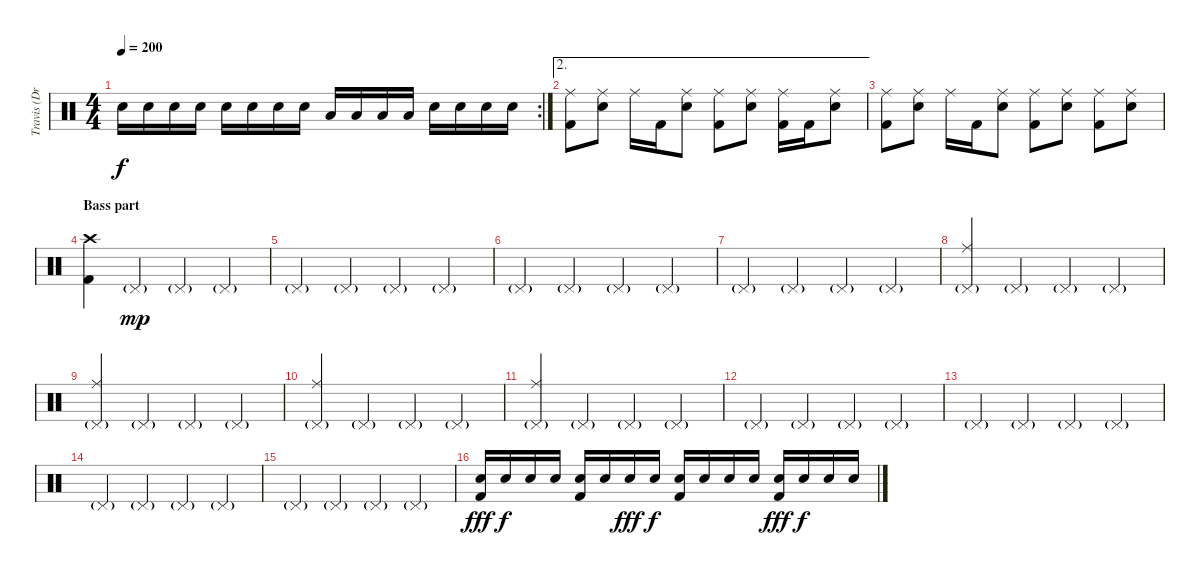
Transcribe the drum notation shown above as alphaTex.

\track ("Travis (Drums)" "Travis (Dr") {instrument percussion}
\staff {score}
\articulation defaults
\rc 2
\ts (4 4)
\tempo 200
\clef neutral
\ks c "Electric Snare (hit)".16{dy f} "Electric Snare (hit)".16 "Electric Snare (hit)".16 "Electric Snare (hit)".16 "Electric Snare (hit)".16 "Electric Snare (hit)".16 "Electric Snare (hit)".16 "Electric Snare (hit)".16 "Low Tom (hit)".16 "Low Tom (hit)".16 "Low Tom (hit)".16 "Low Tom (hit)".16 "Electric Snare (hit)".16 "Electric Snare (hit)".16 "Electric Snare (hit)".16 "Electric Snare (hit)".16
|
\ae 2
("Ride (middle)" "Kick (hit) 2").8 ("Ride (middle)" "Electric Snare (hit)").8 "Ride (middle)".16 "Kick (hit) 2".16 ("Ride (middle)" "Electric Snare (hit)").8 ("Ride (middle)" "Kick (hit) 2").8 ("Ride (middle)" "Electric Snare (hit)").8 ("Ride (middle)" "Kick (hit) 2").16 "Kick (hit) 2".16 ("Ride (middle)" "Electric Snare (hit)").8 |
("Ride (middle)" "Kick (hit) 2").8 ("Ride (middle)" "Electric Snare (hit)").8 "Ride (middle)".16 "Kick (hit) 2".16 ("Ride (middle)" "Electric Snare (hit)").8 ("Ride (middle)" "Kick (hit) 2").8 ("Ride (middle)" "Electric Snare (hit)").8 ("Ride (middle)" "Kick (hit) 2").8 ("Ride (middle)" "Electric Snare (hit)").8 |
\section ("" "Bass part")
("Crash high (hit)" "Kick (hit) 2").4 "Pedal Hi-Hat (hit)"{g}.4{dy mp} "Pedal Hi-Hat (hit)"{g}.4 "Pedal Hi-Hat (hit)"{g}.4 |
"Pedal Hi-Hat (hit)"{g}.4 "Pedal Hi-Hat (hit)"{g}.4 "Pedal Hi-Hat (hit)"{g}.4 "Pedal Hi-Hat (hit)"{g}.4 |
"Pedal Hi-Hat (hit)"{g}.4 "Pedal Hi-Hat (hit)"{g}.4 "Pedal Hi-Hat (hit)"{g}.4 "Pedal Hi-Hat (hit)"{g}.4 |
"Pedal Hi-Hat (hit)"{g}.4 "Pedal Hi-Hat (hit)"{g}.4 "Pedal Hi-Hat (hit)"{g}.4 "Pedal Hi-Hat (hit)"{g}.4 |
("Ride (middle)" "Pedal Hi-Hat (hit)"{g}).4 "Pedal Hi-Hat (hit)"{g}.4 "Pedal Hi-Hat (hit)"{g}.4 "Pedal Hi-Hat (hit)"{g}.4 |
("Ride (middle)" "Pedal Hi-Hat (hit)"{g}).4 "Pedal Hi-Hat (hit)"{g}.4 "Pedal Hi-Hat (hit)"{g}.4 "Pedal Hi-Hat (hit)"{g}.4 |
("Ride (middle)" "Pedal Hi-Hat (hit)"{g}).4 "Pedal Hi-Hat (hit)"{g}.4 "Pedal Hi-Hat (hit)"{g}.4 "Pedal Hi-Hat (hit)"{g}.4 |
("Ride (middle)" "Pedal Hi-Hat (hit)"{g}).4 "Pedal Hi-Hat (hit)"{g}.4 "Pedal Hi-Hat (hit)"{g}.4 "Pedal Hi-Hat (hit)"{g}.4 |
"Pedal Hi-Hat (hit)"{g}.4 "Pedal Hi-Hat (hit)"{g}.4 "Pedal Hi-Hat (hit)"{g}.4 "Pedal Hi-Hat (hit)"{g}.4 |
"Pedal Hi-Hat (hit)"{g}.4 "Pedal Hi-Hat (hit)"{g}.4 "Pedal Hi-Hat (hit)"{g}.4 "Pedal Hi-Hat (hit)"{g}.4 |
"Pedal Hi-Hat (hit)"{g}.4 "Pedal Hi-Hat (hit)"{g}.4 "Pedal Hi-Hat (hit)"{g}.4 "Pedal Hi-Hat (hit)"{g}.4 |
"Pedal Hi-Hat (hit)"{g}.4 "Pedal Hi-Hat (hit)"{g}.4 "Pedal Hi-Hat (hit)"{g}.4 "Pedal Hi-Hat (hit)"{g}.4 |
("Electric Snare (hit)" "Kick (hit) 2").16{dy fff} "Electric Snare (hit)".16{dy f} "Electric Snare (hit)".16 "Electric Snare (hit)".16 ("Electric Snare (hit)" "Kick (hit) 2").16 "Electric Snare (hit)".16 "Electric Snare (hit)".16{dy fff} "Electric Snare (hit)".16{dy f} ("Electric Snare (hit)" "Kick (hit) 2").16 "Electric Snare (hit)".16 "Electric Snare (hit)".16 "Electric Snare (hit)".16 ("Electric Snare (hit)" "Kick (hit) 2").16{dy fff} "Electric Snare (hit)".16{dy f} "Electric Snare (hit)".16 "Electric Snare (hit)".16
